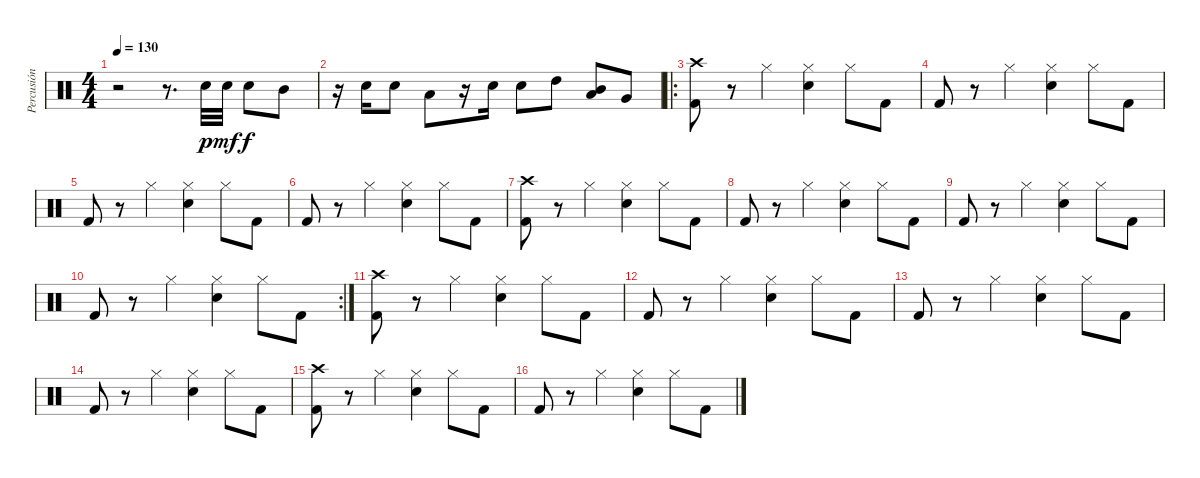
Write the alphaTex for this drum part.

\track ("Percusión" "Percusión") {instrument percussion}
\staff {score}
\articulation defaults
\ts (4 4)
\tempo 130
\clef neutral
\ks c
r.2{dy p} r.8{d} "Electric Snare (hit)".32 "Electric Snare (hit)".32{dy mf} "Electric Snare (hit)".8{dy f} "Mid Tom (hit)".8 |
r.16 "Electric Snare (hit)".16 "Electric Snare (hit)".8 "Low Tom (hit)".8 r.16 "Electric Snare (hit)".16 "Electric Snare (hit)".8 "High Tom (hit)".8 ("Low Tom (hit)" "Mid Tom (hit)").8 "Very Low Tom (hit)".8 |
\ro
("Crash high (hit)" "Kick (hit) 2").8 r.8 "Hi-Hat (closed)".4 ("Electric Snare (hit)" "Hi-Hat (closed)").4 "Hi-Hat (closed)".8 "Kick (hit) 2".8 |
"Kick (hit) 2".8 r.8 "Hi-Hat (closed)".4 ("Electric Snare (hit)" "Hi-Hat (closed)").4 "Hi-Hat (closed)".8 "Kick (hit) 2".8 |
"Kick (hit) 2".8 r.8 "Hi-Hat (closed)".4 ("Electric Snare (hit)" "Hi-Hat (closed)").4 "Hi-Hat (closed)".8 "Kick (hit) 2".8 |
"Kick (hit) 2".8 r.8 "Hi-Hat (closed)".4 ("Electric Snare (hit)" "Hi-Hat (closed)").4 "Hi-Hat (closed)".8 "Kick (hit) 2".8 |
("Crash high (hit)" "Kick (hit) 2").8 r.8 "Hi-Hat (closed)".4 ("Electric Snare (hit)" "Hi-Hat (closed)").4 "Hi-Hat (closed)".8 "Kick (hit) 2".8 |
"Kick (hit) 2".8 r.8 "Hi-Hat (closed)".4 ("Electric Snare (hit)" "Hi-Hat (closed)").4 "Hi-Hat (closed)".8 "Kick (hit) 2".8 |
"Kick (hit) 2".8 r.8 "Hi-Hat (closed)".4 ("Electric Snare (hit)" "Hi-Hat (closed)").4 "Hi-Hat (closed)".8 "Kick (hit) 2".8 |
\rc 2 "Kick (hit) 2".8
r.8 "Hi-Hat (closed)".4 ("Electric Snare (hit)" "Hi-Hat (closed)").4 "Hi-Hat (closed)".8 "Kick (hit) 2".8 |
("Crash high (hit)" "Kick (hit) 2").8 r.8 "Hi-Hat (closed)".4 ("Electric Snare (hit)" "Hi-Hat (closed)").4 "Hi-Hat (closed)".8 "Kick (hit) 2".8 |
"Kick (hit) 2".8 r.8 "Hi-Hat (closed)".4 ("Electric Snare (hit)" "Hi-Hat (closed)").4 "Hi-Hat (closed)".8 "Kick (hit) 2".8 |
"Kick (hit) 2".8 r.8 "Hi-Hat (closed)".4 ("Electric Snare (hit)" "Hi-Hat (closed)").4 "Hi-Hat (closed)".8 "Kick (hit) 2".8 |
"Kick (hit) 2".8 r.8 "Hi-Hat (closed)".4 ("Electric Snare (hit)" "Hi-Hat (closed)").4 "Hi-Hat (closed)".8 "Kick (hit) 2".8 |
("Crash high (hit)" "Kick (hit) 2").8 r.8 "Hi-Hat (closed)".4 ("Electric Snare (hit)" "Hi-Hat (closed)").4 "Hi-Hat (closed)".8 "Kick (hit) 2".8 |
"Kick (hit) 2".8 r.8 "Hi-Hat (closed)".4 ("Electric Snare (hit)" "Hi-Hat (closed)").4 "Hi-Hat (closed)".8 "Kick (hit) 2".8
